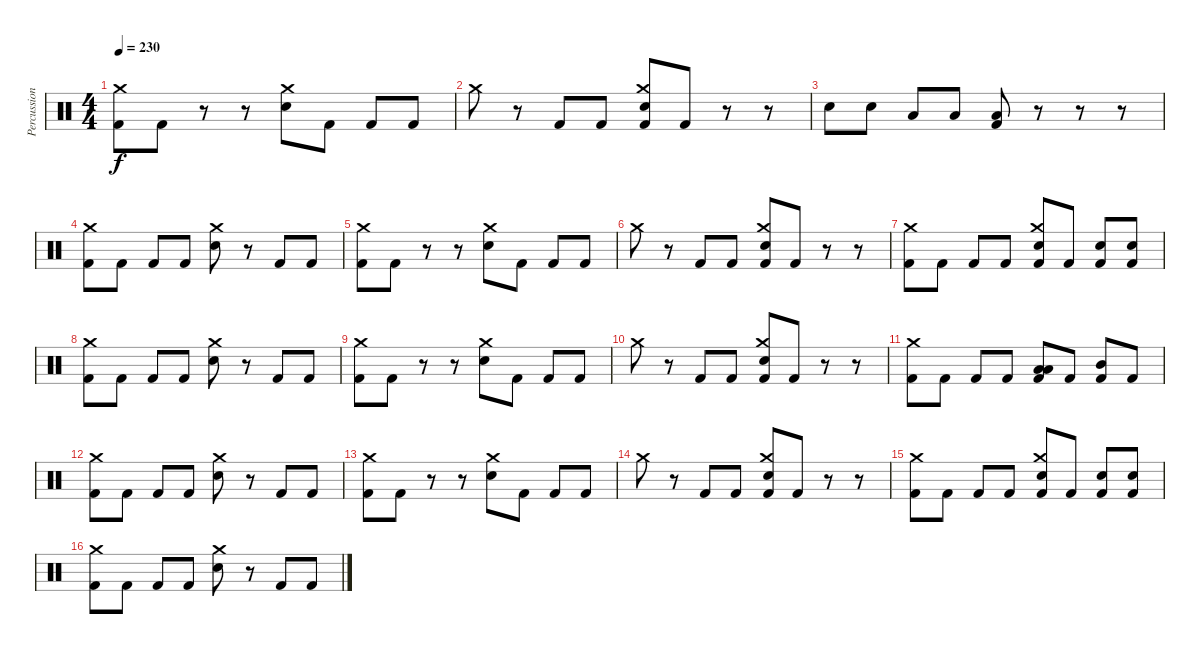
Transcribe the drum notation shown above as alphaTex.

\track ("Percussions" "Percussion") {instrument percussion}
\staff {score}
\articulation defaults
\ts (4 4)
\tempo 230
\clef neutral
\ks c
("Kick (hit) 2" "Crash medium (hit)").8{dy f} "Kick (hit) 2".8 r.8 r.8 ("Electric Snare (hit)" "Crash medium (hit)").8 "Kick (hit) 2".8 "Kick (hit) 2".8 "Kick (hit) 2".8 |
"Crash medium (hit)".8 r.8 "Kick (hit) 2".8 "Kick (hit) 2".8 ("Kick (hit) 2" "Electric Snare (hit)" "Crash medium (hit)").8 "Kick (hit) 2".8 r.8 r.8 |
"Electric Snare (hit)".8 "Electric Snare (hit)".8 "Low Tom (hit)".8 "Low Tom (hit)".8 ("Kick (hit) 2" "Low Tom (hit)").8 r.8 r.8 r.8 |
("Kick (hit) 2" "Crash medium (hit)").8 "Kick (hit) 2".8 "Kick (hit) 2".8 "Kick (hit) 2".8 ("Electric Snare (hit)" "Crash medium (hit)").8 r.8 "Kick (hit) 2".8 "Kick (hit) 2".8 |
("Kick (hit) 2" "Crash medium (hit)").8 "Kick (hit) 2".8 r.8 r.8 ("Electric Snare (hit)" "Crash medium (hit)").8 "Kick (hit) 2".8 "Kick (hit) 2".8 "Kick (hit) 2".8 |
"Crash medium (hit)".8 r.8 "Kick (hit) 2".8 "Kick (hit) 2".8 ("Kick (hit) 2" "Electric Snare (hit)" "Crash medium (hit)").8 "Kick (hit) 2".8 r.8 r.8 |
("Kick (hit) 2" "Crash medium (hit)").8 "Kick (hit) 2".8 "Kick (hit) 2".8 "Kick (hit) 2".8 ("Kick (hit) 2" "Electric Snare (hit)" "Crash medium (hit)").8 "Kick (hit) 2".8 ("Kick (hit) 2" "Electric Snare (hit)").8 ("Kick (hit) 2" "Electric Snare (hit)").8 |
("Kick (hit) 2" "Crash medium (hit)").8 "Kick (hit) 2".8 "Kick (hit) 2".8 "Kick (hit) 2".8 ("Electric Snare (hit)" "Crash medium (hit)").8 r.8 "Kick (hit) 2".8 "Kick (hit) 2".8 |
("Kick (hit) 2" "Crash medium (hit)").8 "Kick (hit) 2".8 r.8 r.8 ("Electric Snare (hit)" "Crash medium (hit)").8 "Kick (hit) 2".8 "Kick (hit) 2".8 "Kick (hit) 2".8 |
"Crash medium (hit)".8 r.8 "Kick (hit) 2".8 "Kick (hit) 2".8 ("Kick (hit) 2" "Electric Snare (hit)" "Crash medium (hit)").8 "Kick (hit) 2".8 r.8 r.8 |
("Kick (hit) 2" "Crash medium (hit)").8 "Kick (hit) 2".8 "Kick (hit) 2".8 "Kick (hit) 2".8 ("Kick (hit) 2" "Low Tom (hit)" "Low Floor Tom (hit)").8 "Kick (hit) 2".8 ("Kick (hit) 2" "Mid Tom (hit)").8 "Kick (hit) 2".8 |
("Kick (hit) 2" "Crash medium (hit)").8 "Kick (hit) 2".8 "Kick (hit) 2".8 "Kick (hit) 2".8 ("Electric Snare (hit)" "Crash medium (hit)").8 r.8 "Kick (hit) 2".8 "Kick (hit) 2".8 |
("Kick (hit) 2" "Crash medium (hit)").8 "Kick (hit) 2".8 r.8 r.8 ("Electric Snare (hit)" "Crash medium (hit)").8 "Kick (hit) 2".8 "Kick (hit) 2".8 "Kick (hit) 2".8 |
"Crash medium (hit)".8 r.8 "Kick (hit) 2".8 "Kick (hit) 2".8 ("Kick (hit) 2" "Electric Snare (hit)" "Crash medium (hit)").8 "Kick (hit) 2".8 r.8 r.8 |
("Kick (hit) 2" "Crash medium (hit)").8 "Kick (hit) 2".8 "Kick (hit) 2".8 "Kick (hit) 2".8 ("Kick (hit) 2" "Electric Snare (hit)" "Crash medium (hit)").8 "Kick (hit) 2".8 ("Kick (hit) 2" "Electric Snare (hit)").8 ("Kick (hit) 2" "Electric Snare (hit)").8 |
("Kick (hit) 2" "Crash medium (hit)").8 "Kick (hit) 2".8 "Kick (hit) 2".8 "Kick (hit) 2".8 ("Electric Snare (hit)" "Crash medium (hit)").8 r.8 "Kick (hit) 2".8 "Kick (hit) 2".8
